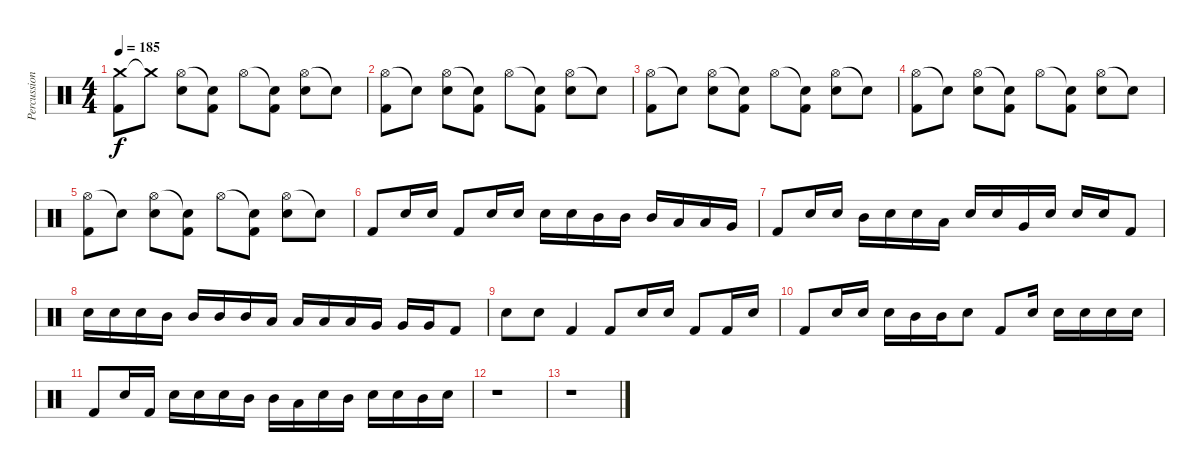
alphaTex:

\track ("Percussions" "Percussion") {instrument percussion}
\staff {score}
\articulation defaults
\ts (4 4)
\tempo 185
\clef neutral
\ks c
("Crash medium (hit)" "Kick (hit) 2").8{dy f} "Crash medium (hit)"{t}.8 ("Hi-Hat (open)" "Snare (hit) 2").8 ("Snare (hit)"{t} "Kick (hit) 2").8 "Hi-Hat (open)".8 ("Snare (hit)"{t} "Kick (hit) 2").8 ("Hi-Hat (open)" "Snare (hit) 2").8 "Snare (hit)"{t}.8 |
("Hi-Hat (open)" "Kick (hit) 2").8 "Snare (hit)"{t}.8 ("Hi-Hat (open)" "Snare (hit) 2").8 ("Snare (hit)"{t} "Kick (hit) 2").8 "Hi-Hat (open)".8 ("Snare (hit)"{t} "Kick (hit) 2").8 ("Hi-Hat (open)" "Snare (hit) 2").8 "Snare (hit)"{t}.8 |
("Hi-Hat (open)" "Kick (hit) 2").8 "Snare (hit)"{t}.8 ("Hi-Hat (open)" "Snare (hit) 2").8 ("Snare (hit)"{t} "Kick (hit) 2").8 "Hi-Hat (open)".8 ("Snare (hit)"{t} "Kick (hit) 2").8 ("Hi-Hat (open)" "Snare (hit) 2").8 "Snare (hit)"{t}.8 |
("Hi-Hat (open)" "Kick (hit) 2").8 "Snare (hit)"{t}.8 ("Hi-Hat (open)" "Snare (hit) 2").8 ("Snare (hit)"{t} "Kick (hit) 2").8 "Hi-Hat (open)".8 ("Snare (hit)"{t} "Kick (hit) 2").8 ("Hi-Hat (open)" "Snare (hit) 2").8 "Snare (hit)"{t}.8 |
("Hi-Hat (open)" "Kick (hit) 2").8 "Snare (hit)"{t}.8 ("Hi-Hat (open)" "Snare (hit) 2").8 ("Snare (hit)"{t} "Kick (hit) 2").8 "Hi-Hat (open)".8 ("Snare (hit)"{t} "Kick (hit) 2").8 ("Hi-Hat (open)" "Snare (hit) 2").8 "Snare (hit)"{t}.8 |
"Kick (hit) 2".8{volume 8} "Snare (hit) 2".16 "Snare (hit) 2".16 "Kick (hit) 2".8 "Snare (hit) 2".16 "Snare (hit) 2".16 "Snare (hit) 2".16 "Snare (hit) 2".16 "Mid Tom (hit)".16 "Mid Tom (hit)".16 "Mid Tom (hit)".16 "Low Tom (hit)".16 "Low Tom (hit)".16 "Very Low Tom (hit)".16 |
"Kick (hit) 2".8 "Snare (hit) 2".16 "Snare (hit) 2".16 "Mid Tom (hit)".16 "Snare (hit) 2".16 "Snare (hit) 2".16 "Low Tom (hit)".16 "Snare (hit) 2".16 "Snare (hit) 2".16 "Very Low Tom (hit)".16 "Snare (hit) 2".16 "Snare (hit) 2".16 "Snare (hit) 2".16 "Kick (hit) 2".8 |
"Snare (hit) 2".16{volume 8} "Snare (hit) 2".16 "Snare (hit) 2".16 "Mid Tom (hit)".16 "Mid Tom (hit)".16 "Mid Tom (hit)".16 "Mid Tom (hit)".16 "Low Tom (hit)".16 "Low Tom (hit)".16 "Low Tom (hit)".16 "Low Tom (hit)".16 "Very Low Tom (hit)".16 "Very Low Tom (hit)".16 "Very Low Tom (hit)".16 "Kick (hit) 2".8 |
"Snare (hit) 2".8 "Snare (hit) 2".8 "Kick (hit) 2".4 "Kick (hit) 2".8 "Snare (hit) 2".16 "Snare (hit) 2".16 "Kick (hit) 2".8 "Kick (hit) 2".16 "Snare (hit) 2".16 |
"Kick (hit) 2".8{volume 0} "Snare (hit) 2".16 "Snare (hit) 2".16 "Snare (hit) 2".16 "Mid Tom (hit)".16 "Mid Tom (hit)".16 "Snare (hit) 2".8 "Kick (hit) 2".8 "Snare (hit) 2".16 "Snare (hit) 2".16 "Snare (hit) 2".16 "Snare (hit) 2".16 "Snare (hit) 2".16 |
"Kick (hit) 2".8 "Snare (hit) 2".16 "Kick (hit) 2".16 "Snare (hit) 2".16 "Snare (hit) 2".16 "Snare (hit) 2".16 "Mid Tom (hit)".16 "Mid Tom (hit)".16 "Low Tom (hit)".16 "Snare (hit) 2".16 "Mid Tom (hit)".16 "Snare (hit) 2".16 "Snare (hit) 2".16 "Mid Tom (hit)".16 "Snare (hit) 2".16 |
r.1 |
r.1
